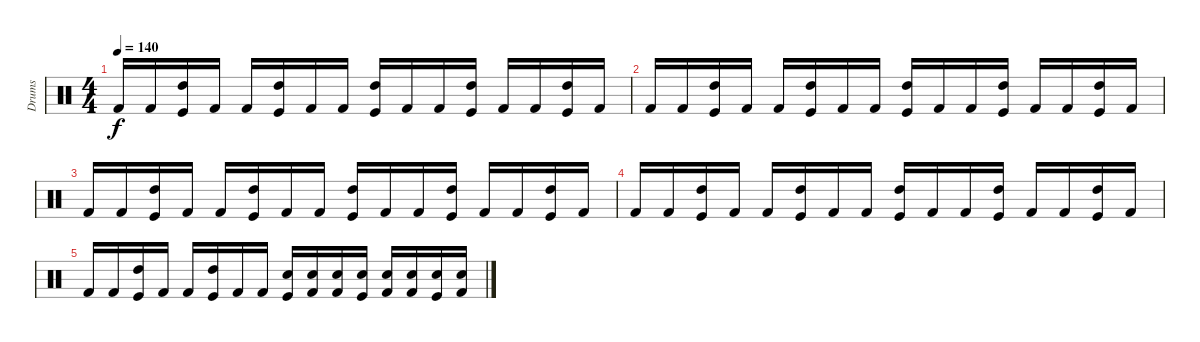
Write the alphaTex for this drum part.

\track ("Drums" "Drums") {instrument percussion}
\staff {score}
\articulation defaults
\ts (4 4)
\tempo 140
\clef neutral
\ks c "Kick (hit) 2".16{dy f} "Kick (hit) 2".16
("Kick (hit)" "High Tom (hit)").16 "Kick (hit) 2".16 "Kick (hit) 2".16 ("Kick (hit)" "High Tom (hit)").16 "Kick (hit) 2".16 "Kick (hit) 2".16 ("Kick (hit)" "High Tom (hit)").16 "Kick (hit) 2".16 "Kick (hit) 2".16 ("Kick (hit)" "High Tom (hit)").16 "Kick (hit) 2".16 "Kick (hit) 2".16 ("Kick (hit)" "High Tom (hit)").16 "Kick (hit) 2".16 |
"Kick (hit) 2".16 "Kick (hit) 2".16 ("Kick (hit)" "High Tom (hit)").16 "Kick (hit) 2".16 "Kick (hit) 2".16 ("Kick (hit)" "High Tom (hit)").16 "Kick (hit) 2".16 "Kick (hit) 2".16 ("Kick (hit)" "High Tom (hit)").16 "Kick (hit) 2".16 "Kick (hit) 2".16 ("Kick (hit)" "High Tom (hit)").16 "Kick (hit) 2".16 "Kick (hit) 2".16 ("Kick (hit)" "High Tom (hit)").16 "Kick (hit) 2".16 |
"Kick (hit) 2".16 "Kick (hit) 2".16 ("Kick (hit)" "High Tom (hit)").16 "Kick (hit) 2".16 "Kick (hit) 2".16 ("Kick (hit)" "High Tom (hit)").16 "Kick (hit) 2".16 "Kick (hit) 2".16 ("Kick (hit)" "High Tom (hit)").16 "Kick (hit) 2".16 "Kick (hit) 2".16 ("Kick (hit)" "High Tom (hit)").16 "Kick (hit) 2".16 "Kick (hit) 2".16 ("Kick (hit)" "High Tom (hit)").16 "Kick (hit) 2".16 |
"Kick (hit) 2".16 "Kick (hit) 2".16 ("Kick (hit)" "High Tom (hit)").16 "Kick (hit) 2".16 "Kick (hit) 2".16 ("Kick (hit)" "High Tom (hit)").16 "Kick (hit) 2".16 "Kick (hit) 2".16 ("Kick (hit)" "High Tom (hit)").16 "Kick (hit) 2".16 "Kick (hit) 2".16 ("Kick (hit)" "High Tom (hit)").16 "Kick (hit) 2".16 "Kick (hit) 2".16 ("Kick (hit)" "High Tom (hit)").16 "Kick (hit) 2".16 |
"Kick (hit) 2".16 "Kick (hit) 2".16 ("Kick (hit)" "High Tom (hit)").16 "Kick (hit) 2".16 "Kick (hit) 2".16 ("Kick (hit)" "High Tom (hit)").16 "Kick (hit) 2".16 "Kick (hit) 2".16 ("Kick (hit)" "Snare (hit) 2").16 ("Kick (hit) 2" "Snare (hit) 2").16 ("Kick (hit) 2" "Snare (hit) 2").16 ("Kick (hit)" "Snare (hit) 2").16 ("Kick (hit) 2" "Snare (hit) 2").16 ("Kick (hit) 2" "Snare (hit) 2").16 ("Kick (hit)" "Snare (hit) 2").16 ("Kick (hit) 2" "Snare (hit) 2").16
